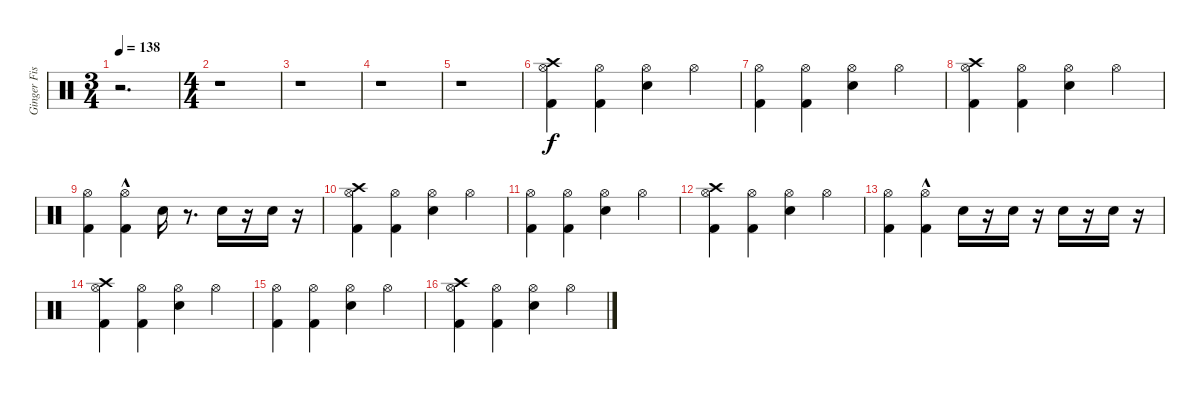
\track ("Ginger Fish (Drums)" "Ginger Fis") {instrument percussion}
\staff {score}
\articulation defaults
\ts (3 4)
\tempo 138
\clef neutral
\ks c
r.2{d dy f} |
\ts (4 4)
r.1 |
r.1 |
r.1 |
r.1 |
("Hi-Hat (open)" "Kick (hit) 2" "Crash high (hit)").4 ("Kick (hit) 2" "Hi-Hat (open)").4 ("Hi-Hat (open)" "Snare (hit) 2").4 "Hi-Hat (open)".4 |
("Hi-Hat (open)" "Kick (hit) 2").4 ("Hi-Hat (open)" "Kick (hit) 2").4 ("Hi-Hat (open)" "Snare (hit) 2").4 "Hi-Hat (open)".4 |
("Crash high (hit)" "Hi-Hat (open)" "Kick (hit) 2").4 ("Hi-Hat (open)" "Kick (hit) 2").4 ("Hi-Hat (open)" "Snare (hit) 2").4 "Hi-Hat (open)".4 |
("Hi-Hat (open)" "Kick (hit) 2").4 ("Hi-Hat (open)"{hac} "Kick (hit) 2").4 "Snare (hit) 2".16 r.8{d} "Snare (hit) 2".16 r.16 "Snare (hit) 2".16 r.16 |
("Hi-Hat (open)" "Kick (hit) 2" "Crash high (hit)").4 ("Kick (hit) 2" "Hi-Hat (open)").4 ("Hi-Hat (open)" "Snare (hit) 2").4 "Hi-Hat (open)".4 |
("Hi-Hat (open)" "Kick (hit) 2").4 ("Hi-Hat (open)" "Kick (hit) 2").4 ("Hi-Hat (open)" "Snare (hit) 2").4 "Hi-Hat (open)".4 |
("Crash high (hit)" "Hi-Hat (open)" "Kick (hit) 2").4 ("Hi-Hat (open)" "Kick (hit) 2").4 ("Hi-Hat (open)" "Snare (hit) 2").4 "Hi-Hat (open)".4 |
("Hi-Hat (open)" "Kick (hit) 2").4 ("Hi-Hat (open)"{hac} "Kick (hit) 2").4 "Snare (hit) 2".16 r.16 "Snare (hit) 2".16 r.16 "Snare (hit) 2".16 r.16 "Snare (hit) 2".16 r.16 |
("Hi-Hat (open)" "Kick (hit) 2" "Crash high (hit)").4 ("Kick (hit) 2" "Hi-Hat (open)").4 ("Hi-Hat (open)" "Snare (hit) 2").4 "Hi-Hat (open)".4 |
("Hi-Hat (open)" "Kick (hit) 2").4 ("Hi-Hat (open)" "Kick (hit) 2").4 ("Hi-Hat (open)" "Snare (hit) 2").4 "Hi-Hat (open)".4 |
("Crash high (hit)" "Hi-Hat (open)" "Kick (hit) 2").4 ("Hi-Hat (open)" "Kick (hit) 2").4 ("Hi-Hat (open)" "Snare (hit) 2").4 "Hi-Hat (open)".4
